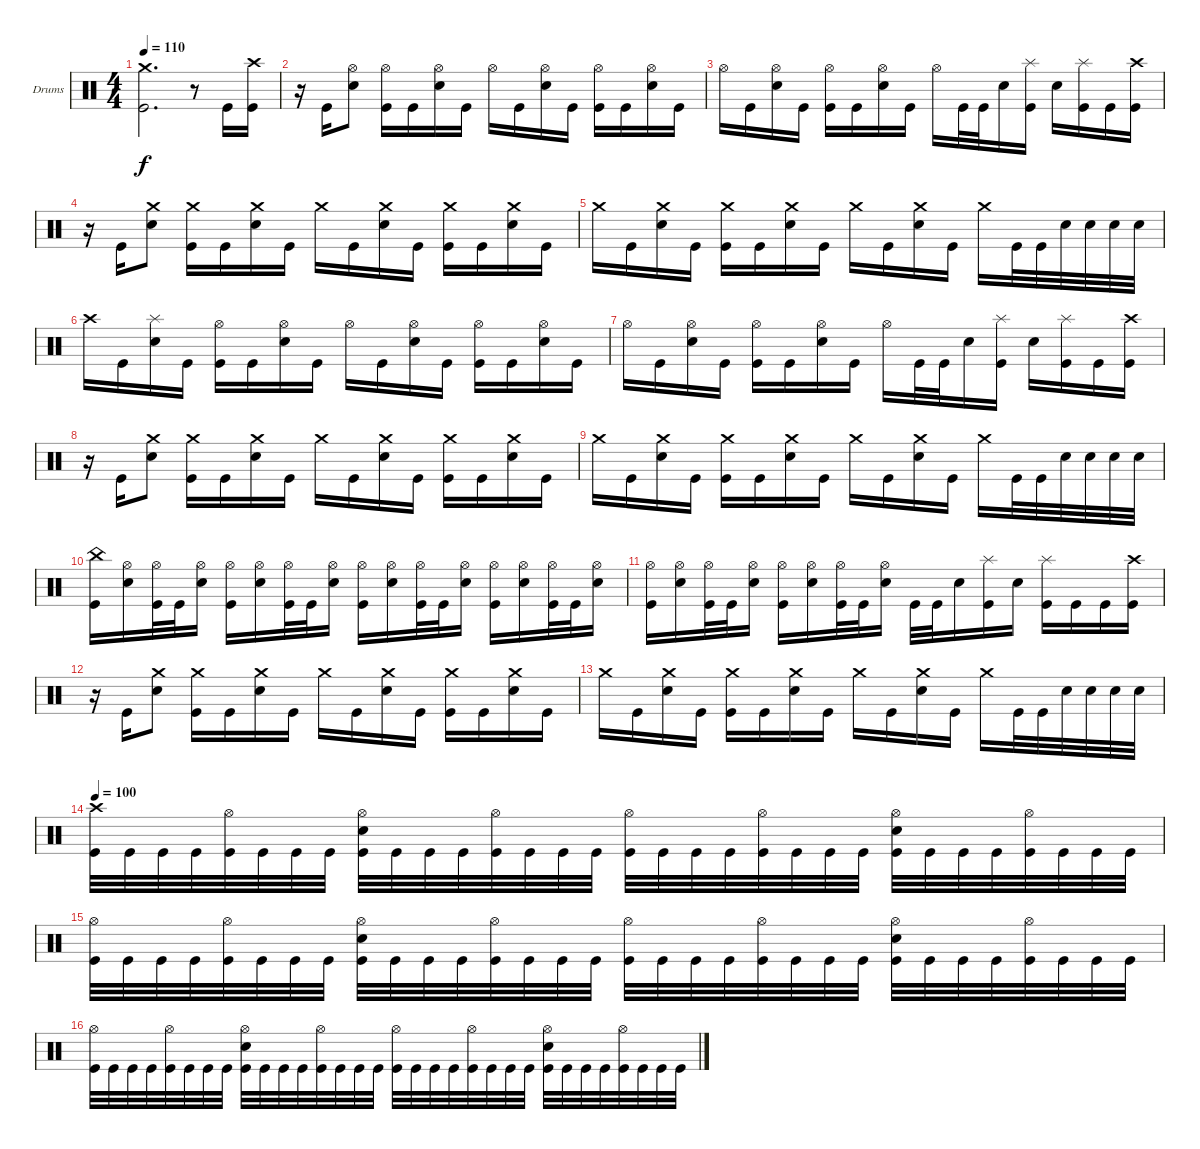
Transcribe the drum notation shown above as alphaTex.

\defaultSystemsLayout 4
\bracketExtendMode groupsimilarinstruments
\firstSystemTrackNameOrientation horizontal
\otherSystemsTrackNameOrientation horizontal
\track ("Drumkit" "Drums") {instrument percussion}
\staff {score}
\articulation defaults
\ts (4 4)
\tempo 110
\clef neutral
\scale
0.332402
\ks c
("Crash medium (hit)" "Kick (hit)").2{d dy f} r.8 "Kick (hit)".16 ("Crash high (hit)" "Kick (hit)").16 |
\scale
0.667598 r.16 "Kick (hit)".16 ("Hi-Hat (open)" "Snare (hit) 2").8 ("Hi-Hat (open)" "Kick (hit)").16 "Kick (hit)".16 ("Hi-Hat (open)" "Snare (hit) 2").16 "Kick (hit)".16 "Hi-Hat (open)".16 "Kick (hit)".16 ("Hi-Hat (open)" "Snare (hit) 2").16 "Kick (hit)".16 ("Hi-Hat (open)" "Kick (hit)").16 "Kick (hit)".16 ("Hi-Hat (open)" "Snare (hit) 2").16 "Kick (hit)".16 |
\scale
0.531373 "Hi-Hat (open)".16 "Kick (hit)".16 ("Hi-Hat (open)" "Snare (hit) 2").16 "Kick (hit)".16 ("Hi-Hat (open)" "Kick (hit)").16 "Kick (hit)".16 ("Hi-Hat (open)" "Snare (hit) 2").16 "Kick (hit)".16 "Hi-Hat (open)".16 "Kick (hit)".32 "Kick (hit)".32 "Snare (hit) 2".16 ("Splash (hit)" "Kick (hit)").16 "Snare (hit) 2".16 ("Splash (hit)" "Kick (hit)").16 "Kick (hit)".16 ("Crash high (hit)" "Kick (hit)").16 |
\scale
0.468627 r.16 "Kick (hit)".16 ("Crash medium (hit)" "Snare (hit) 2").8 ("Crash medium (hit)" "Kick (hit)").16 "Kick (hit)".16 ("Crash medium (hit)" "Snare (hit) 2").16 "Kick (hit)".16 "Crash medium (hit)".16 "Kick (hit)".16 ("Crash medium (hit)" "Snare (hit) 2").16 "Kick (hit)".16 ("Crash medium (hit)" "Kick (hit)").16 "Kick (hit)".16 ("Crash medium (hit)" "Snare (hit) 2").16 "Kick (hit)".16 |
\scale
0.534709 "Crash medium (hit)".16 "Kick (hit)".16 ("Crash medium (hit)" "Snare (hit) 2").16 "Kick (hit)".16 ("Crash medium (hit)" "Kick (hit)").16 "Kick (hit)".16 ("Crash medium (hit)" "Snare (hit) 2").16 "Kick (hit)".16 "Crash medium (hit)".16 "Kick (hit)".16 ("Crash medium (hit)" "Snare (hit) 2").16 "Kick (hit)".16 "Crash medium (hit)".16 "Kick (hit)".32 "Kick (hit)".32 "Snare (hit) 2".32 "Snare (hit) 2".32 "Snare (hit) 2".32 "Snare (hit) 2".32 |
\scale
0.465291 "Crash high (hit)".16 "Kick (hit)".16 ("Splash (hit)" "Snare (hit) 2").16 "Kick (hit)".16 ("Hi-Hat (open)" "Kick (hit)").16 "Kick (hit)".16 ("Hi-Hat (open)" "Snare (hit) 2").16 "Kick (hit)".16 "Hi-Hat (open)".16 "Kick (hit)".16 ("Hi-Hat (open)" "Snare (hit) 2").16 "Kick (hit)".16 ("Hi-Hat (open)" "Kick (hit)").16 "Kick (hit)".16 ("Hi-Hat (open)" "Snare (hit) 2").16 "Kick (hit)".16 |
\scale
0.531373 "Hi-Hat (open)".16 "Kick (hit)".16 ("Hi-Hat (open)" "Snare (hit) 2").16 "Kick (hit)".16 ("Hi-Hat (open)" "Kick (hit)").16 "Kick (hit)".16 ("Hi-Hat (open)" "Snare (hit) 2").16 "Kick (hit)".16 "Hi-Hat (open)".16 "Kick (hit)".32 "Kick (hit)".32 "Snare (hit) 2".16 ("Splash (hit)" "Kick (hit)").16 "Snare (hit) 2".16 ("Splash (hit)" "Kick (hit)").16 "Kick (hit)".16 ("Crash high (hit)" "Kick (hit)").16 |
\scale
0.468627 r.16 "Kick (hit)".16 ("Crash medium (hit)" "Snare (hit) 2").8 ("Crash medium (hit)" "Kick (hit)").16 "Kick (hit)".16 ("Crash medium (hit)" "Snare (hit) 2").16 "Kick (hit)".16 "Crash medium (hit)".16 "Kick (hit)".16 ("Crash medium (hit)" "Snare (hit) 2").16 "Kick (hit)".16 ("Crash medium (hit)" "Kick (hit)").16 "Kick (hit)".16 ("Crash medium (hit)" "Snare (hit) 2").16 "Kick (hit)".16 |
\scale
0.493934 "Crash medium (hit)".16 "Kick (hit)".16 ("Crash medium (hit)" "Snare (hit) 2").16 "Kick (hit)".16 ("Crash medium (hit)" "Kick (hit)").16 "Kick (hit)".16 ("Crash medium (hit)" "Snare (hit) 2").16 "Kick (hit)".16 "Crash medium (hit)".16 "Kick (hit)".16 ("Crash medium (hit)" "Snare (hit) 2").16 "Kick (hit)".16 "Crash medium (hit)".16 "Kick (hit)".32 "Kick (hit)".32 "Snare (hit) 2".32 "Snare (hit) 2".32 "Snare (hit) 2".32 "Snare (hit) 2".32 |
\scale
0.506066 ("China (hit)" "Kick (hit)").16 ("Hi-Hat (open)" "Snare (hit) 2").16 ("Hi-Hat (open)" "Kick (hit)").32 "Kick (hit)".32 ("Hi-Hat (open)" "Snare (hit) 2").16 ("Hi-Hat (open)" "Kick (hit)").16 ("Hi-Hat (open)" "Snare (hit) 2").16 ("Hi-Hat (open)" "Kick (hit)").32 "Kick (hit)".32 ("Hi-Hat (open)" "Snare (hit) 2").16 ("Hi-Hat (open)" "Kick (hit)").16 ("Hi-Hat (open)" "Snare (hit) 2").16 ("Hi-Hat (open)" "Kick (hit)").32 "Kick (hit)".32 ("Hi-Hat (open)" "Snare (hit) 2").16 ("Hi-Hat (open)" "Kick (hit)").16 ("Hi-Hat (open)" "Snare (hit) 2").16 ("Hi-Hat (open)" "Kick (hit)").32 "Kick (hit)".32 ("Hi-Hat (open)" "Snare (hit) 2").16 |
\scale
0.543893 ("Hi-Hat (open)" "Kick (hit)").16 ("Hi-Hat (open)" "Snare (hit) 2").16 ("Hi-Hat (open)" "Kick (hit)").32 "Kick (hit)".32 ("Hi-Hat (open)" "Snare (hit) 2").16 ("Hi-Hat (open)" "Kick (hit)").16 ("Hi-Hat (open)" "Snare (hit) 2").16 ("Hi-Hat (open)" "Kick (hit)").32 "Kick (hit)".32 ("Hi-Hat (open)" "Snare (hit) 2").16 "Kick (hit)".32 "Kick (hit)".32 "Snare (hit) 2".16 ("Splash (hit)" "Kick (hit)").16 "Snare (hit) 2".16 ("Splash (hit)" "Kick (hit)").16 "Kick (hit)".16 "Kick (hit)".16 ("Crash high (hit)" "Kick (hit)").16 |
\scale
0.456107 r.16 "Kick (hit)".16 ("Crash medium (hit)" "Snare (hit) 2").8 ("Crash medium (hit)" "Kick (hit)").16 "Kick (hit)".16 ("Crash medium (hit)" "Snare (hit) 2").16 "Kick (hit)".16 "Crash medium (hit)".16 "Kick (hit)".16 ("Crash medium (hit)" "Snare (hit) 2").16 "Kick (hit)".16 ("Crash medium (hit)" "Kick (hit)").16 "Kick (hit)".16 ("Crash medium (hit)" "Snare (hit) 2").16 "Kick (hit)".16 |
\scale
0.431165 "Crash medium (hit)".16 "Kick (hit)".16 ("Crash medium (hit)" "Snare (hit) 2").16 "Kick (hit)".16 ("Crash medium (hit)" "Kick (hit)").16 "Kick (hit)".16 ("Crash medium (hit)" "Snare (hit) 2").16 "Kick (hit)".16 "Crash medium (hit)".16 "Kick (hit)".16 ("Crash medium (hit)" "Snare (hit) 2").16 "Kick (hit)".16 "Crash medium (hit)".16 "Kick (hit)".32 "Kick (hit)".32 "Snare (hit) 2".32 "Snare (hit) 2".32 "Snare (hit) 2".32 "Snare (hit) 2".32 |
\tempo 100
\scale
0.568835 ("Crash high (hit)" "Kick (hit)").32 "Kick (hit)".32 "Kick (hit)".32 "Kick (hit)".32 ("Hi-Hat (open)" "Kick (hit)").32 "Kick (hit)".32 "Kick (hit)".32 "Kick (hit)".32 ("Hi-Hat (open)" "Snare (hit) 2" "Kick (hit)").32 "Kick (hit)".32 "Kick (hit)".32 "Kick (hit)".32 ("Hi-Hat (open)" "Kick (hit)").32 "Kick (hit)".32 "Kick (hit)".32 "Kick (hit)".32 ("Hi-Hat (open)" "Kick (hit)").32 "Kick (hit)".32 "Kick (hit)".32 "Kick (hit)".32 ("Hi-Hat (open)" "Kick (hit)").32 "Kick (hit)".32 "Kick (hit)".32 "Kick (hit)".32 ("Hi-Hat (open)" "Snare (hit) 2" "Kick (hit)").32 "Kick (hit)".32 "Kick (hit)".32 "Kick (hit)".32 ("Hi-Hat (open)" "Kick (hit)").32 "Kick (hit)".32 "Kick (hit)".32 "Kick (hit)".32 |
\scale
0.5 ("Hi-Hat (open)" "Kick (hit)").32 "Kick (hit)".32 "Kick (hit)".32 "Kick (hit)".32 ("Hi-Hat (open)" "Kick (hit)").32 "Kick (hit)".32 "Kick (hit)".32 "Kick (hit)".32 ("Hi-Hat (open)" "Snare (hit) 2" "Kick (hit)").32 "Kick (hit)".32 "Kick (hit)".32 "Kick (hit)".32 ("Hi-Hat (open)" "Kick (hit)").32 "Kick (hit)".32 "Kick (hit)".32 "Kick (hit)".32 ("Hi-Hat (open)" "Kick (hit)").32 "Kick (hit)".32 "Kick (hit)".32 "Kick (hit)".32 ("Hi-Hat (open)" "Kick (hit)").32 "Kick (hit)".32 "Kick (hit)".32 "Kick (hit)".32 ("Hi-Hat (open)" "Snare (hit) 2" "Kick (hit)").32 "Kick (hit)".32 "Kick (hit)".32 "Kick (hit)".32 ("Hi-Hat (open)" "Kick (hit)").32 "Kick (hit)".32 "Kick (hit)".32 "Kick (hit)".32 |
\scale
0.5 ("Hi-Hat (open)" "Kick (hit)").32 "Kick (hit)".32 "Kick (hit)".32 "Kick (hit)".32 ("Hi-Hat (open)" "Kick (hit)").32 "Kick (hit)".32 "Kick (hit)".32 "Kick (hit)".32 ("Hi-Hat (open)" "Snare (hit) 2" "Kick (hit)").32 "Kick (hit)".32 "Kick (hit)".32 "Kick (hit)".32 ("Hi-Hat (open)" "Kick (hit)").32 "Kick (hit)".32 "Kick (hit)".32 "Kick (hit)".32 ("Hi-Hat (open)" "Kick (hit)").32 "Kick (hit)".32 "Kick (hit)".32 "Kick (hit)".32 ("Hi-Hat (open)" "Kick (hit)").32 "Kick (hit)".32 "Kick (hit)".32 "Kick (hit)".32 ("Hi-Hat (open)" "Snare (hit) 2" "Kick (hit)").32 "Kick (hit)".32 "Kick (hit)".32 "Kick (hit)".32 ("Hi-Hat (open)" "Kick (hit)").32 "Kick (hit)".32 "Kick (hit)".32 "Kick (hit)".32
